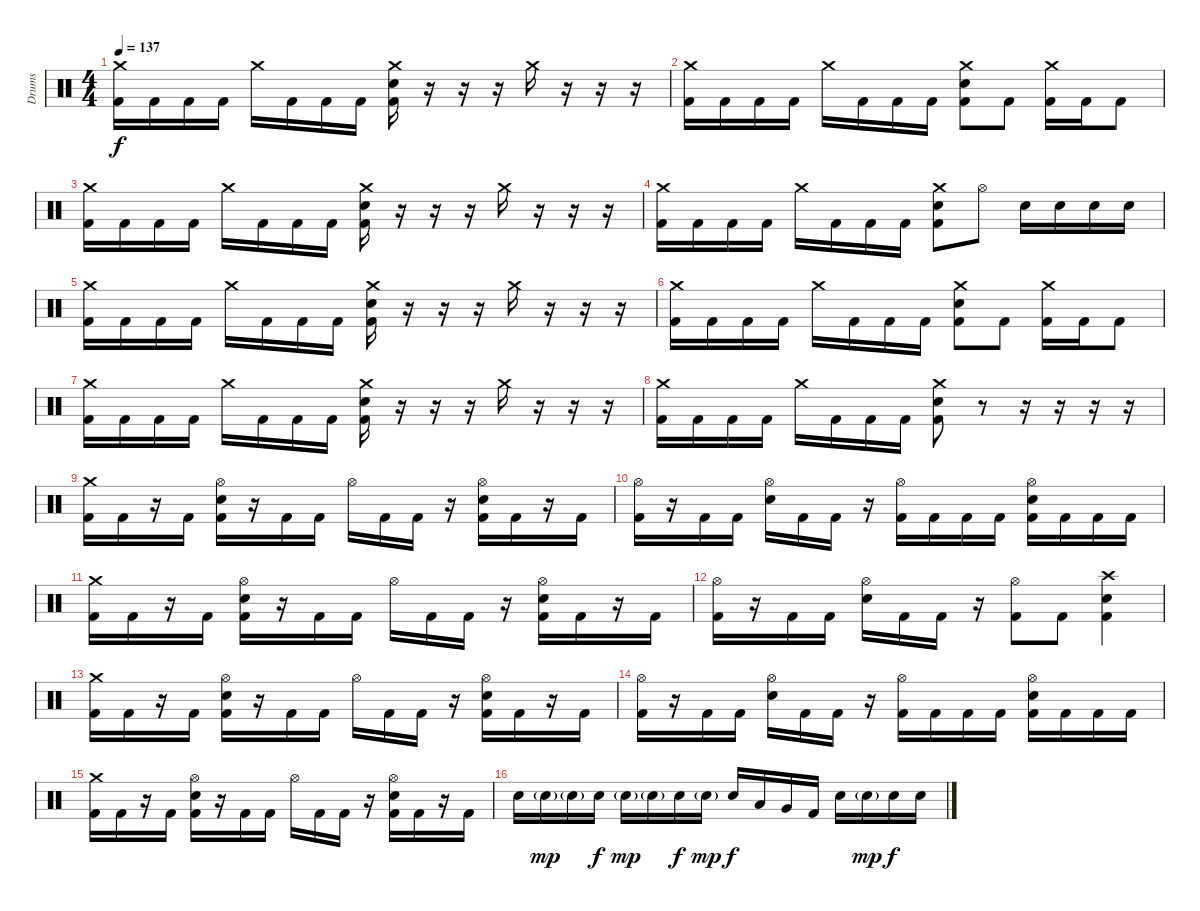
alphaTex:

\track ("Drums" "Drums") {instrument percussion}
\staff {score}
\articulation defaults
\ts (4 4)
\tempo 137
\clef neutral
\ks c
("Crash medium (hit)" "Kick (hit) 2").16{dy f} "Kick (hit) 2".16 "Kick (hit) 2".16 "Kick (hit) 2".16 "Crash medium (hit)".16 "Kick (hit) 2".16 "Kick (hit) 2".16 "Kick (hit) 2".16 ("Crash medium (hit)" "Electric Snare (hit)" "Kick (hit) 2").16 r.16 r.16 r.16 "Crash medium (hit)".16 r.16 r.16 r.16 |
("Crash medium (hit)" "Kick (hit) 2").16 "Kick (hit) 2".16 "Kick (hit) 2".16 "Kick (hit) 2".16 "Crash medium (hit)".16 "Kick (hit) 2".16 "Kick (hit) 2".16 "Kick (hit) 2".16 ("Crash medium (hit)" "Electric Snare (hit)" "Kick (hit) 2").8 "Kick (hit) 2".8 ("Crash medium (hit)" "Kick (hit) 2").16 "Kick (hit) 2".16 "Kick (hit) 2".8 |
("Crash medium (hit)" "Kick (hit) 2").16 "Kick (hit) 2".16 "Kick (hit) 2".16 "Kick (hit) 2".16 "Crash medium (hit)".16 "Kick (hit) 2".16 "Kick (hit) 2".16 "Kick (hit) 2".16 ("Crash medium (hit)" "Electric Snare (hit)" "Kick (hit) 2").16 r.16 r.16 r.16 "Crash medium (hit)".16 r.16 r.16 r.16 |
("Crash medium (hit)" "Kick (hit) 2").16 "Kick (hit) 2".16 "Kick (hit) 2".16 "Kick (hit) 2".16 "Crash medium (hit)".16 "Kick (hit) 2".16 "Kick (hit) 2".16 "Kick (hit) 2".16 ("Crash medium (hit)" "Electric Snare (hit)" "Kick (hit) 2").8 "Hi-Hat (open)".8 "Electric Snare (hit)".16 "Electric Snare (hit)".16 "Electric Snare (hit)".16 "Electric Snare (hit)".16 |
("Crash medium (hit)" "Kick (hit) 2").16 "Kick (hit) 2".16 "Kick (hit) 2".16 "Kick (hit) 2".16 "Crash medium (hit)".16 "Kick (hit) 2".16 "Kick (hit) 2".16 "Kick (hit) 2".16 ("Crash medium (hit)" "Electric Snare (hit)" "Kick (hit) 2").16 r.16 r.16 r.16 "Crash medium (hit)".16 r.16 r.16 r.16 |
("Crash medium (hit)" "Kick (hit) 2").16 "Kick (hit) 2".16 "Kick (hit) 2".16 "Kick (hit) 2".16 "Crash medium (hit)".16 "Kick (hit) 2".16 "Kick (hit) 2".16 "Kick (hit) 2".16 ("Crash medium (hit)" "Electric Snare (hit)" "Kick (hit) 2").8 "Kick (hit) 2".8 ("Crash medium (hit)" "Kick (hit) 2").16 "Kick (hit) 2".16 "Kick (hit) 2".8 |
("Crash medium (hit)" "Kick (hit) 2").16 "Kick (hit) 2".16 "Kick (hit) 2".16 "Kick (hit) 2".16 "Crash medium (hit)".16 "Kick (hit) 2".16 "Kick (hit) 2".16 "Kick (hit) 2".16 ("Crash medium (hit)" "Electric Snare (hit)" "Kick (hit) 2").16 r.16 r.16 r.16 "Crash medium (hit)".16 r.16 r.16 r.16 |
("Crash medium (hit)" "Kick (hit) 2").16 "Kick (hit) 2".16 "Kick (hit) 2".16 "Kick (hit) 2".16 "Crash medium (hit)".16 "Kick (hit) 2".16 "Kick (hit) 2".16 "Kick (hit) 2".16 ("Crash medium (hit)" "Electric Snare (hit)" "Kick (hit) 2").8 r.8 r.16 r.16 r.16 r.16 |
("Crash medium (hit)" "Kick (hit) 2").16 "Kick (hit) 2".16 r.16 "Kick (hit) 2".16 ("Hi-Hat (open)" "Electric Snare (hit)" "Kick (hit) 2").16 r.16 "Kick (hit) 2".16 "Kick (hit) 2".16 "Hi-Hat (open)".16 "Kick (hit) 2".16 "Kick (hit) 2".16 r.16 ("Hi-Hat (open)" "Electric Snare (hit)" "Kick (hit) 2").16 "Kick (hit) 2".16 r.16 "Kick (hit) 2".16 |
("Hi-Hat (open)" "Kick (hit) 2").16 r.16 "Kick (hit) 2".16 "Kick (hit) 2".16 ("Hi-Hat (open)" "Electric Snare (hit)").16 "Kick (hit) 2".16 "Kick (hit) 2".16 r.16 ("Hi-Hat (open)" "Kick (hit) 2").16 "Kick (hit) 2".16 "Kick (hit) 2".16 "Kick (hit) 2".16 ("Hi-Hat (open)" "Electric Snare (hit)" "Kick (hit) 2").16 "Kick (hit) 2".16 "Kick (hit) 2".16 "Kick (hit) 2".16 |
("Crash medium (hit)" "Kick (hit) 2").16 "Kick (hit) 2".16 r.16 "Kick (hit) 2".16 ("Hi-Hat (open)" "Electric Snare (hit)" "Kick (hit) 2").16 r.16 "Kick (hit) 2".16 "Kick (hit) 2".16 "Hi-Hat (open)".16 "Kick (hit) 2".16 "Kick (hit) 2".16 r.16 ("Hi-Hat (open)" "Electric Snare (hit)" "Kick (hit) 2").16 "Kick (hit) 2".16 r.16 "Kick (hit) 2".16 |
("Hi-Hat (open)" "Kick (hit) 2").16 r.16 "Kick (hit) 2".16 "Kick (hit) 2".16 ("Hi-Hat (open)" "Electric Snare (hit)").16 "Kick (hit) 2".16 "Kick (hit) 2".16 r.16 ("Hi-Hat (open)" "Kick (hit) 2").8 "Kick (hit) 2".8 ("Crash high (hit)" "Electric Snare (hit)" "Kick (hit) 2").4 |
("Crash medium (hit)" "Kick (hit) 2").16 "Kick (hit) 2".16 r.16 "Kick (hit) 2".16 ("Hi-Hat (open)" "Electric Snare (hit)" "Kick (hit) 2").16 r.16 "Kick (hit) 2".16 "Kick (hit) 2".16 "Hi-Hat (open)".16 "Kick (hit) 2".16 "Kick (hit) 2".16 r.16 ("Hi-Hat (open)" "Electric Snare (hit)" "Kick (hit) 2").16 "Kick (hit) 2".16 r.16 "Kick (hit) 2".16 |
("Hi-Hat (open)" "Kick (hit) 2").16 r.16 "Kick (hit) 2".16 "Kick (hit) 2".16 ("Hi-Hat (open)" "Electric Snare (hit)").16 "Kick (hit) 2".16 "Kick (hit) 2".16 r.16 ("Hi-Hat (open)" "Kick (hit) 2").16 "Kick (hit) 2".16 "Kick (hit) 2".16 "Kick (hit) 2".16 ("Hi-Hat (open)" "Electric Snare (hit)" "Kick (hit) 2").16 "Kick (hit) 2".16 "Kick (hit) 2".16 "Kick (hit) 2".16 |
("Crash medium (hit)" "Kick (hit) 2").16 "Kick (hit) 2".16 r.16 "Kick (hit) 2".16 ("Hi-Hat (open)" "Electric Snare (hit)" "Kick (hit) 2").16 r.16 "Kick (hit) 2".16 "Kick (hit) 2".16 "Hi-Hat (open)".16 "Kick (hit) 2".16 "Kick (hit) 2".16 r.16 ("Hi-Hat (open)" "Electric Snare (hit)" "Kick (hit) 2").16 "Kick (hit) 2".16 r.16 "Kick (hit) 2".16 |
"Electric Snare (hit)".16 "Snare (hit) 2"{g}.16{dy mp} "Snare (hit) 2"{g}.16 "Electric Snare (hit)".16{dy f} "Snare (hit) 2"{g}.16{dy mp} "Snare (hit) 2"{g}.16 "Electric Snare (hit)".16{dy f} "Snare (hit) 2"{g}.16{dy mp} "Electric Snare (hit)".16{dy f} "Low Tom (hit)".16 "Very Low Tom (hit)".16 "Kick (hit) 2".16 "Electric Snare (hit)".16 "Snare (hit) 2"{g}.16{dy mp} "Electric Snare (hit)".16{dy f} "Electric Snare (hit)".16
